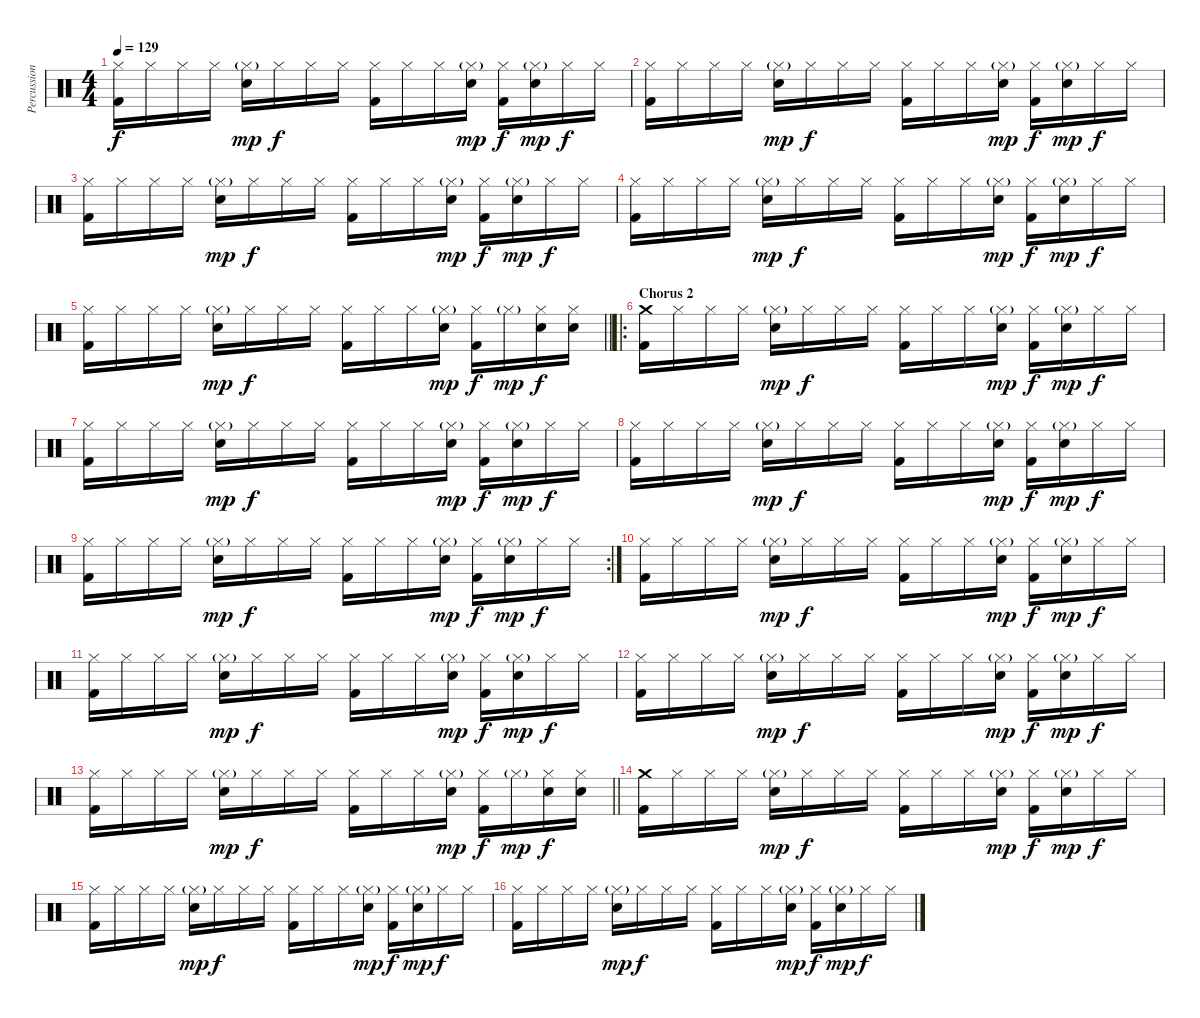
\track ("Percussion" "Percussion") {instrument percussion}
\staff {score}
\articulation defaults
\ts (4 4)
\tempo 129
\clef neutral
\ks c
("Hi-Hat (closed)" "Kick (hit) 2").16{dy f} "Hi-Hat (closed)".16 "Hi-Hat (closed)".16 "Hi-Hat (closed)".16 ("Hi-Hat (closed)"{g} "Electric Snare (hit)").16{dy mp} "Hi-Hat (closed)".16{dy f} "Hi-Hat (closed)".16 "Hi-Hat (closed)".16 ("Hi-Hat (closed)" "Kick (hit) 2").16 "Hi-Hat (closed)".16 "Hi-Hat (closed)".16 ("Hi-Hat (closed)"{g} "Electric Snare (hit)").16{dy mp} ("Hi-Hat (closed)" "Kick (hit) 2").16{dy f} ("Hi-Hat (closed)"{g} "Electric Snare (hit)").16{dy mp} "Hi-Hat (closed)".16{dy f} "Hi-Hat (closed)".16 |
("Hi-Hat (closed)" "Kick (hit) 2").16 "Hi-Hat (closed)".16 "Hi-Hat (closed)".16 "Hi-Hat (closed)".16 ("Hi-Hat (closed)"{g} "Electric Snare (hit)").16{dy mp} "Hi-Hat (closed)".16{dy f} "Hi-Hat (closed)".16 "Hi-Hat (closed)".16 ("Hi-Hat (closed)" "Kick (hit) 2").16 "Hi-Hat (closed)".16 "Hi-Hat (closed)".16 ("Hi-Hat (closed)"{g} "Electric Snare (hit)").16{dy mp} ("Hi-Hat (closed)" "Kick (hit) 2").16{dy f} ("Hi-Hat (closed)"{g} "Electric Snare (hit)").16{dy mp} "Hi-Hat (closed)".16{dy f} "Hi-Hat (closed)".16 |
("Hi-Hat (closed)" "Kick (hit) 2").16 "Hi-Hat (closed)".16 "Hi-Hat (closed)".16 "Hi-Hat (closed)".16 ("Hi-Hat (closed)"{g} "Electric Snare (hit)").16{dy mp} "Hi-Hat (closed)".16{dy f} "Hi-Hat (closed)".16 "Hi-Hat (closed)".16 ("Hi-Hat (closed)" "Kick (hit) 2").16 "Hi-Hat (closed)".16 "Hi-Hat (closed)".16 ("Hi-Hat (closed)"{g} "Electric Snare (hit)").16{dy mp} ("Hi-Hat (closed)" "Kick (hit) 2").16{dy f} ("Hi-Hat (closed)"{g} "Electric Snare (hit)").16{dy mp} "Hi-Hat (closed)".16{dy f} "Hi-Hat (closed)".16 |
("Hi-Hat (closed)" "Kick (hit) 2").16 "Hi-Hat (closed)".16 "Hi-Hat (closed)".16 "Hi-Hat (closed)".16 ("Hi-Hat (closed)"{g} "Electric Snare (hit)").16{dy mp} "Hi-Hat (closed)".16{dy f} "Hi-Hat (closed)".16 "Hi-Hat (closed)".16 ("Hi-Hat (closed)" "Kick (hit) 2").16 "Hi-Hat (closed)".16 "Hi-Hat (closed)".16 ("Hi-Hat (closed)"{g} "Electric Snare (hit)").16{dy mp} ("Hi-Hat (closed)" "Kick (hit) 2").16{dy f} ("Hi-Hat (closed)"{g} "Electric Snare (hit)").16{dy mp} "Hi-Hat (closed)".16{dy f} "Hi-Hat (closed)".16 |
\barLineRight lightlight
("Hi-Hat (closed)" "Kick (hit) 2").16 "Hi-Hat (closed)".16 "Hi-Hat (closed)".16 "Hi-Hat (closed)".16 ("Hi-Hat (closed)"{g} "Electric Snare (hit)").16{dy mp} "Hi-Hat (closed)".16{dy f} "Hi-Hat (closed)".16 "Hi-Hat (closed)".16 ("Hi-Hat (closed)" "Kick (hit) 2").16 "Hi-Hat (closed)".16 "Hi-Hat (closed)".16 ("Hi-Hat (closed)"{g} "Electric Snare (hit)").16{dy mp} ("Hi-Hat (closed)" "Kick (hit) 2").16{dy f} "Hi-Hat (closed)"{g}.16{dy mp} ("Hi-Hat (closed)" "Electric Snare (hit)").16{dy f} ("Hi-Hat (closed)" "Electric Snare (hit)").16 |
\ro
\section ("" "Chorus 2")
("Crash medium (hit)" "Kick (hit) 2").16 "Hi-Hat (closed)".16 "Hi-Hat (closed)".16 "Hi-Hat (closed)".16 ("Hi-Hat (closed)"{g} "Electric Snare (hit)").16{dy mp} "Hi-Hat (closed)".16{dy f} "Hi-Hat (closed)".16 "Hi-Hat (closed)".16 ("Hi-Hat (closed)" "Kick (hit) 2").16 "Hi-Hat (closed)".16 "Hi-Hat (closed)".16 ("Hi-Hat (closed)"{g} "Electric Snare (hit)").16{dy mp} ("Hi-Hat (closed)" "Kick (hit) 2").16{dy f} ("Hi-Hat (closed)"{g} "Electric Snare (hit)").16{dy mp} "Hi-Hat (closed)".16{dy f} "Hi-Hat (closed)".16 |
("Hi-Hat (closed)" "Kick (hit) 2").16 "Hi-Hat (closed)".16 "Hi-Hat (closed)".16 "Hi-Hat (closed)".16 ("Hi-Hat (closed)"{g} "Electric Snare (hit)").16{dy mp} "Hi-Hat (closed)".16{dy f} "Hi-Hat (closed)".16 "Hi-Hat (closed)".16 ("Hi-Hat (closed)" "Kick (hit) 2").16 "Hi-Hat (closed)".16 "Hi-Hat (closed)".16 ("Hi-Hat (closed)"{g} "Electric Snare (hit)").16{dy mp} ("Hi-Hat (closed)" "Kick (hit) 2").16{dy f} ("Hi-Hat (closed)"{g} "Electric Snare (hit)").16{dy mp} "Hi-Hat (closed)".16{dy f} "Hi-Hat (closed)".16 |
("Hi-Hat (closed)" "Kick (hit) 2").16 "Hi-Hat (closed)".16 "Hi-Hat (closed)".16 "Hi-Hat (closed)".16 ("Hi-Hat (closed)"{g} "Electric Snare (hit)").16{dy mp} "Hi-Hat (closed)".16{dy f} "Hi-Hat (closed)".16 "Hi-Hat (closed)".16 ("Hi-Hat (closed)" "Kick (hit) 2").16 "Hi-Hat (closed)".16 "Hi-Hat (closed)".16 ("Hi-Hat (closed)"{g} "Electric Snare (hit)").16{dy mp} ("Hi-Hat (closed)" "Kick (hit) 2").16{dy f} ("Hi-Hat (closed)"{g} "Electric Snare (hit)").16{dy mp} "Hi-Hat (closed)".16{dy f} "Hi-Hat (closed)".16 |
\rc 2
("Hi-Hat (closed)" "Kick (hit) 2").16 "Hi-Hat (closed)".16 "Hi-Hat (closed)".16 "Hi-Hat (closed)".16 ("Hi-Hat (closed)"{g} "Electric Snare (hit)").16{dy mp} "Hi-Hat (closed)".16{dy f} "Hi-Hat (closed)".16 "Hi-Hat (closed)".16 ("Hi-Hat (closed)" "Kick (hit) 2").16 "Hi-Hat (closed)".16 "Hi-Hat (closed)".16 ("Hi-Hat (closed)"{g} "Electric Snare (hit)").16{dy mp} ("Hi-Hat (closed)" "Kick (hit) 2").16{dy f} ("Hi-Hat (closed)"{g} "Electric Snare (hit)").16{dy mp} "Hi-Hat (closed)".16{dy f} "Hi-Hat (closed)".16 |
("Hi-Hat (closed)" "Kick (hit) 2").16 "Hi-Hat (closed)".16 "Hi-Hat (closed)".16 "Hi-Hat (closed)".16 ("Hi-Hat (closed)"{g} "Electric Snare (hit)").16{dy mp} "Hi-Hat (closed)".16{dy f} "Hi-Hat (closed)".16 "Hi-Hat (closed)".16 ("Hi-Hat (closed)" "Kick (hit) 2").16 "Hi-Hat (closed)".16 "Hi-Hat (closed)".16 ("Hi-Hat (closed)"{g} "Electric Snare (hit)").16{dy mp} ("Hi-Hat (closed)" "Kick (hit) 2").16{dy f} ("Hi-Hat (closed)"{g} "Electric Snare (hit)").16{dy mp} "Hi-Hat (closed)".16{dy f} "Hi-Hat (closed)".16 |
("Hi-Hat (closed)" "Kick (hit) 2").16 "Hi-Hat (closed)".16 "Hi-Hat (closed)".16 "Hi-Hat (closed)".16 ("Hi-Hat (closed)"{g} "Electric Snare (hit)").16{dy mp} "Hi-Hat (closed)".16{dy f} "Hi-Hat (closed)".16 "Hi-Hat (closed)".16 ("Hi-Hat (closed)" "Kick (hit) 2").16 "Hi-Hat (closed)".16 "Hi-Hat (closed)".16 ("Hi-Hat (closed)"{g} "Electric Snare (hit)").16{dy mp} ("Hi-Hat (closed)" "Kick (hit) 2").16{dy f} ("Hi-Hat (closed)"{g} "Electric Snare (hit)").16{dy mp} "Hi-Hat (closed)".16{dy f} "Hi-Hat (closed)".16 |
("Hi-Hat (closed)" "Kick (hit) 2").16 "Hi-Hat (closed)".16 "Hi-Hat (closed)".16 "Hi-Hat (closed)".16 ("Hi-Hat (closed)"{g} "Electric Snare (hit)").16{dy mp} "Hi-Hat (closed)".16{dy f} "Hi-Hat (closed)".16 "Hi-Hat (closed)".16 ("Hi-Hat (closed)" "Kick (hit) 2").16 "Hi-Hat (closed)".16 "Hi-Hat (closed)".16 ("Hi-Hat (closed)"{g} "Electric Snare (hit)").16{dy mp} ("Hi-Hat (closed)" "Kick (hit) 2").16{dy f} ("Hi-Hat (closed)"{g} "Electric Snare (hit)").16{dy mp} "Hi-Hat (closed)".16{dy f} "Hi-Hat (closed)".16 |
\barLineRight lightlight
("Hi-Hat (closed)" "Kick (hit) 2").16 "Hi-Hat (closed)".16 "Hi-Hat (closed)".16 "Hi-Hat (closed)".16 ("Hi-Hat (closed)"{g} "Electric Snare (hit)").16{dy mp} "Hi-Hat (closed)".16{dy f} "Hi-Hat (closed)".16 "Hi-Hat (closed)".16 ("Hi-Hat (closed)" "Kick (hit) 2").16 "Hi-Hat (closed)".16 "Hi-Hat (closed)".16 ("Hi-Hat (closed)"{g} "Electric Snare (hit)").16{dy mp} ("Hi-Hat (closed)" "Kick (hit) 2").16{dy f} "Hi-Hat (closed)"{g}.16{dy mp} ("Hi-Hat (closed)" "Electric Snare (hit)").16{dy f} ("Hi-Hat (closed)" "Electric Snare (hit)").16 |
("Crash medium (hit)" "Kick (hit) 2").16 "Hi-Hat (closed)".16 "Hi-Hat (closed)".16 "Hi-Hat (closed)".16 ("Hi-Hat (closed)"{g} "Electric Snare (hit)").16{dy mp} "Hi-Hat (closed)".16{dy f} "Hi-Hat (closed)".16 "Hi-Hat (closed)".16 ("Hi-Hat (closed)" "Kick (hit) 2").16 "Hi-Hat (closed)".16 "Hi-Hat (closed)".16 ("Hi-Hat (closed)"{g} "Electric Snare (hit)").16{dy mp} ("Hi-Hat (closed)" "Kick (hit) 2").16{dy f} ("Hi-Hat (closed)"{g} "Electric Snare (hit)").16{dy mp} "Hi-Hat (closed)".16{dy f} "Hi-Hat (closed)".16 |
("Hi-Hat (closed)" "Kick (hit) 2").16 "Hi-Hat (closed)".16 "Hi-Hat (closed)".16 "Hi-Hat (closed)".16 ("Hi-Hat (closed)"{g} "Electric Snare (hit)").16{dy mp} "Hi-Hat (closed)".16{dy f} "Hi-Hat (closed)".16 "Hi-Hat (closed)".16 ("Hi-Hat (closed)" "Kick (hit) 2").16 "Hi-Hat (closed)".16 "Hi-Hat (closed)".16 ("Hi-Hat (closed)"{g} "Electric Snare (hit)").16{dy mp} ("Hi-Hat (closed)" "Kick (hit) 2").16{dy f} ("Hi-Hat (closed)"{g} "Electric Snare (hit)").16{dy mp} "Hi-Hat (closed)".16{dy f} "Hi-Hat (closed)".16 |
("Hi-Hat (closed)" "Kick (hit) 2").16 "Hi-Hat (closed)".16 "Hi-Hat (closed)".16 "Hi-Hat (closed)".16 ("Hi-Hat (closed)"{g} "Electric Snare (hit)").16{dy mp} "Hi-Hat (closed)".16{dy f} "Hi-Hat (closed)".16 "Hi-Hat (closed)".16 ("Hi-Hat (closed)" "Kick (hit) 2").16 "Hi-Hat (closed)".16 "Hi-Hat (closed)".16 ("Hi-Hat (closed)"{g} "Electric Snare (hit)").16{dy mp} ("Hi-Hat (closed)" "Kick (hit) 2").16{dy f} ("Hi-Hat (closed)"{g} "Electric Snare (hit)").16{dy mp} "Hi-Hat (closed)".16{dy f} "Hi-Hat (closed)".16
